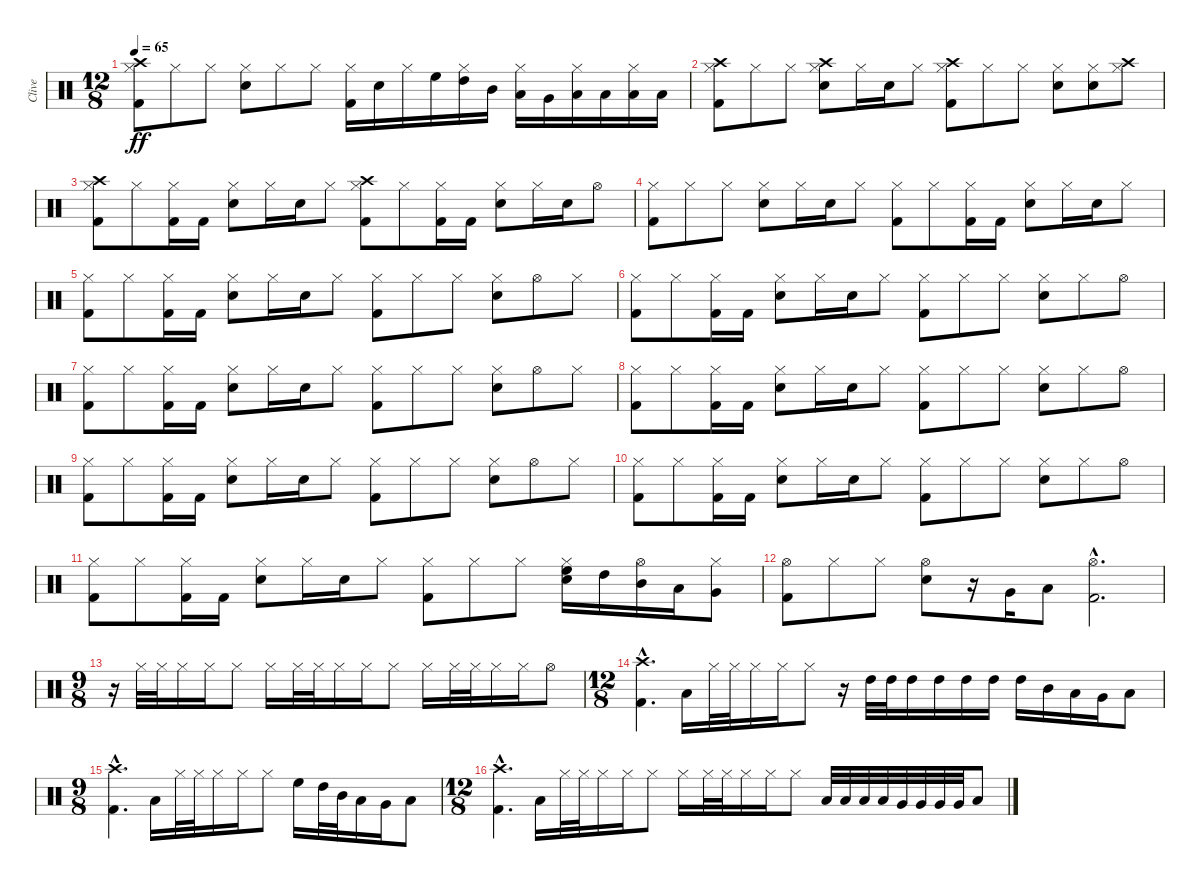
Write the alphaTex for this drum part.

\track ("Clive" "Clive") {instrument percussion}
\staff {score}
\articulation defaults
\ts (12 8)
\tempo 65
\clef neutral
\ks c
("Kick (hit) 2" "Hi-Hat (closed)" "Crash high (hit)").8{dy ff} "Hi-Hat (closed)".8 "Hi-Hat (closed)".8 ("Snare (hit) 2" "Hi-Hat (closed)").8 "Hi-Hat (closed)".8 "Hi-Hat (closed)".8 ("Kick (hit) 2" "Hi-Hat (closed)").16 "Snare (hit) 2".16 "Hi-Hat (closed)".16 "High Floor Tom (hit)".16 ("Hi-Hat (closed)" "High Tom (hit)").16 "Mid Tom (hit)".16 ("Hi-Hat (closed)" "Low Tom (hit)").16 "Very Low Tom (hit)".16 ("Low Floor Tom (hit)" "Hi-Hat (closed)").16 "Low Floor Tom (hit)".16 ("Low Floor Tom (hit)" "Hi-Hat (closed)").16 "Low Floor Tom (hit)".16 |
("Kick (hit) 2" "Hi-Hat (closed)" "Crash high (hit)").8 "Hi-Hat (closed)".8 "Hi-Hat (closed)".8 ("Snare (hit) 2" "Hi-Hat (closed)" "Crash high (hit)").8 "Hi-Hat (closed)".16 "Snare (hit) 2".16 "Hi-Hat (closed)".8 ("Kick (hit) 2" "Hi-Hat (closed)" "Crash high (hit)").8 "Hi-Hat (closed)".8 "Hi-Hat (closed)".8 ("Snare (hit) 2" "Hi-Hat (closed)").8 ("Snare (hit) 2" "Hi-Hat (closed)").8 ("Hi-Hat (closed)" "Crash high (hit)").8 |
("Kick (hit) 2" "Hi-Hat (closed)" "Crash high (hit)").8 "Hi-Hat (closed)".8 ("Kick (hit) 2" "Hi-Hat (closed)").16 "Kick (hit) 2".16 ("Snare (hit) 2" "Hi-Hat (closed)").8 "Hi-Hat (closed)".16 "Snare (hit) 2".16 "Hi-Hat (closed)".8 ("Kick (hit) 2" "Hi-Hat (closed)" "Crash high (hit)").8 "Hi-Hat (closed)".8 ("Kick (hit) 2" "Hi-Hat (closed)").16 "Kick (hit) 2".16 ("Snare (hit) 2" "Hi-Hat (closed)").8 "Hi-Hat (closed)".16 "Snare (hit) 2".16 "Hi-Hat (open)".8 |
("Kick (hit) 2" "Hi-Hat (closed)").8 "Hi-Hat (closed)".8 "Hi-Hat (closed)".8 ("Snare (hit) 2" "Hi-Hat (closed)").8 "Hi-Hat (closed)".16 "Snare (hit) 2".16 "Hi-Hat (closed)".8 ("Kick (hit) 2" "Hi-Hat (closed)").8 "Hi-Hat (closed)".8 ("Kick (hit) 2" "Hi-Hat (closed)").16 "Kick (hit) 2".16 ("Snare (hit) 2" "Hi-Hat (closed)").8 "Hi-Hat (closed)".16 "Snare (hit) 2".16 "Hi-Hat (closed)".8 |
("Kick (hit) 2" "Hi-Hat (closed)").8 "Hi-Hat (closed)".8 ("Kick (hit) 2" "Hi-Hat (closed)").16 "Kick (hit) 2".16 ("Snare (hit) 2" "Hi-Hat (closed)").8 "Hi-Hat (closed)".16 "Snare (hit) 2".16 "Hi-Hat (closed)".8 ("Kick (hit) 2" "Hi-Hat (closed)").8 "Hi-Hat (closed)".8 "Hi-Hat (closed)".8 ("Snare (hit) 2" "Hi-Hat (closed)").8 "Hi-Hat (open)".8 "Hi-Hat (closed)".8 |
("Kick (hit) 2" "Hi-Hat (closed)").8 "Hi-Hat (closed)".8 ("Kick (hit) 2" "Hi-Hat (closed)").16 "Kick (hit) 2".16 ("Snare (hit) 2" "Hi-Hat (closed)").8 "Hi-Hat (closed)".16 "Snare (hit) 2".16 "Hi-Hat (closed)".8 ("Kick (hit) 2" "Hi-Hat (closed)").8 "Hi-Hat (closed)".8 "Hi-Hat (closed)".8 ("Snare (hit) 2" "Hi-Hat (closed)").8 "Hi-Hat (closed)".8 "Hi-Hat (open)".8 |
("Kick (hit) 2" "Hi-Hat (closed)").8 "Hi-Hat (closed)".8 ("Kick (hit) 2" "Hi-Hat (closed)").16 "Kick (hit) 2".16 ("Snare (hit) 2" "Hi-Hat (closed)").8 "Hi-Hat (closed)".16 "Snare (hit) 2".16 "Hi-Hat (closed)".8 ("Kick (hit) 2" "Hi-Hat (closed)").8 "Hi-Hat (closed)".8 "Hi-Hat (closed)".8 ("Snare (hit) 2" "Hi-Hat (closed)").8 "Hi-Hat (open)".8 "Hi-Hat (closed)".8 |
("Kick (hit) 2" "Hi-Hat (closed)").8 "Hi-Hat (closed)".8 ("Kick (hit) 2" "Hi-Hat (closed)").16 "Kick (hit) 2".16 ("Snare (hit) 2" "Hi-Hat (closed)").8 "Hi-Hat (closed)".16 "Snare (hit) 2".16 "Hi-Hat (closed)".8 ("Kick (hit) 2" "Hi-Hat (closed)").8 "Hi-Hat (closed)".8 "Hi-Hat (closed)".8 ("Snare (hit) 2" "Hi-Hat (closed)").8 "Hi-Hat (closed)".8 "Hi-Hat (open)".8 |
("Kick (hit) 2" "Hi-Hat (closed)").8 "Hi-Hat (closed)".8 ("Kick (hit) 2" "Hi-Hat (closed)").16 "Kick (hit) 2".16 ("Snare (hit) 2" "Hi-Hat (closed)").8 "Hi-Hat (closed)".16 "Snare (hit) 2".16 "Hi-Hat (closed)".8 ("Kick (hit) 2" "Hi-Hat (closed)").8 "Hi-Hat (closed)".8 "Hi-Hat (closed)".8 ("Snare (hit) 2" "Hi-Hat (closed)").8 "Hi-Hat (open)".8 "Hi-Hat (closed)".8 |
("Kick (hit) 2" "Hi-Hat (closed)").8 "Hi-Hat (closed)".8 ("Kick (hit) 2" "Hi-Hat (closed)").16 "Kick (hit) 2".16 ("Snare (hit) 2" "Hi-Hat (closed)").8 "Hi-Hat (closed)".16 "Snare (hit) 2".16 "Hi-Hat (closed)".8 ("Kick (hit) 2" "Hi-Hat (closed)").8 "Hi-Hat (closed)".8 "Hi-Hat (closed)".8 ("Snare (hit) 2" "Hi-Hat (closed)").8 "Hi-Hat (closed)".8 "Hi-Hat (open)".8 |
("Kick (hit) 2" "Hi-Hat (closed)").8 "Hi-Hat (closed)".8 ("Kick (hit) 2" "Hi-Hat (closed)").16 "Kick (hit) 2".16 ("Snare (hit) 2" "Hi-Hat (closed)").8 "Hi-Hat (closed)".16 "Snare (hit) 2".16 "Hi-Hat (closed)".8 ("Kick (hit) 2" "Hi-Hat (closed)").8 "Hi-Hat (closed)".8 "Hi-Hat (closed)".8 ("Snare (hit) 2" "Hi-Hat (closed)" "High Floor Tom (hit)").16 "High Tom (hit)".16 ("Hi-Hat (open)" "Mid Tom (hit)").16 "Low Tom (hit)".16 ("Hi-Hat (closed)" "Very Low Tom (hit)").8 |
("Kick (hit) 2" "Hi-Hat (open)").8 "Hi-Hat (closed)".8 "Hi-Hat (closed)".8 ("Snare (hit) 2" "Hi-Hat (open)").8 r.16 "Very Low Tom (hit)".16 "Low Floor Tom (hit)".8 ("Kick (hit) 2"{hac} "Hi-Hat (open)"{hac}).2{d} |
\ts (9 8)
r.16 "Hi-Hat (closed)".32{volume 4} "Hi-Hat (closed)".32{volume 6} "Hi-Hat (closed)".16{volume 8} "Hi-Hat (closed)".16{volume 12} "Hi-Hat (closed)".8{volume 16} "Hi-Hat (closed)".16{volume 0} "Hi-Hat (closed)".32{volume 4} "Hi-Hat (closed)".32{volume 6} "Hi-Hat (closed)".16{volume 8} "Hi-Hat (closed)".16{volume 12} "Hi-Hat (closed)".8{volume 16} "Hi-Hat (closed)".16{volume 0} "Hi-Hat (closed)".32{volume 4} "Hi-Hat (closed)".32{volume 6} "Hi-Hat (closed)".16{volume 8} "Hi-Hat (closed)".16{volume 12} "Hi-Hat (open)".8{volume 16} |
\ts (12 8)
("Kick (hit) 2"{hac} "Crash high (hit)"{hac}).4{d} "Low Floor Tom (hit)".16{volume 0} "Hi-Hat (closed)".32{volume 4} "Hi-Hat (closed)".32{volume 6} "Hi-Hat (closed)".16{volume 8} "Hi-Hat (closed)".16{volume 12} "Hi-Hat (closed)".8{volume 16} r.16 "High Tom (hit)".32{volume 4} "High Tom (hit)".32{volume 6} "High Tom (hit)".16{volume 8} "High Tom (hit)".16{volume 12} "High Tom (hit)".16{volume 16} "High Tom (hit)".16 "High Tom (hit)".16 "Mid Tom (hit)".16 "Low Tom (hit)".16 "Very Low Tom (hit)".16 "Low Floor Tom (hit)".8 |
\ts (9 8)
("Kick (hit) 2"{hac} "Crash high (hit)"{hac}).4{d} "Low Floor Tom (hit)".16{volume 0} "Hi-Hat (closed)".32{volume 4} "Hi-Hat (closed)".32{volume 6} "Hi-Hat (closed)".16{volume 8} "Hi-Hat (closed)".16{volume 12} "Hi-Hat (closed)".8{volume 16} "High Floor Tom (hit)".16 "High Tom (hit)".32 "Mid Tom (hit)".32 "Low Tom (hit)".16 "Very Low Tom (hit)".16 "Low Floor Tom (hit)".8 |
\ts (12 8)
("Kick (hit) 2"{hac} "Crash high (hit)"{hac}).4{d} "Low Floor Tom (hit)".16{volume 0} "Hi-Hat (closed)".32{volume 4} "Hi-Hat (closed)".32{volume 6} "Hi-Hat (closed)".16{volume 8} "Hi-Hat (closed)".16{volume 12} "Hi-Hat (closed)".8{volume 16} "Hi-Hat (closed)".16{volume 0} "Hi-Hat (closed)".32{volume 4} "Hi-Hat (closed)".32{volume 6} "Hi-Hat (closed)".16{volume 8} "Hi-Hat (closed)".16{volume 12} "Hi-Hat (closed)".8{volume 16} "Low Tom (hit)".32 "Low Tom (hit)".32 "Low Tom (hit)".32 "Low Tom (hit)".32 "Very Low Tom (hit)".32 "Very Low Tom (hit)".32 "Very Low Tom (hit)".32 "Very Low Tom (hit)".32 "Low Floor Tom (hit)".8
